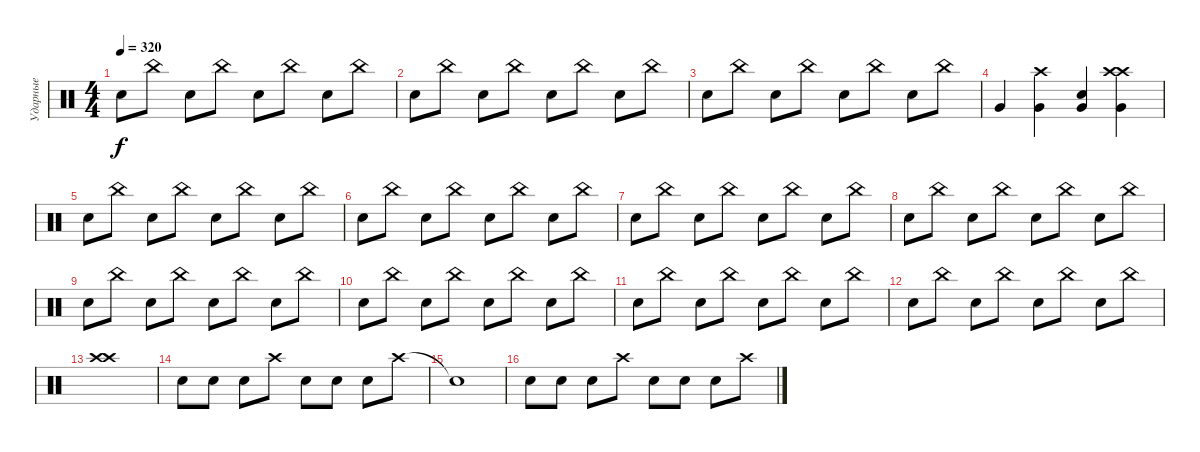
\track ("Ударные" "Ударные") {instrument percussion}
\staff {score}
\articulation defaults
\ts (4 4)
\tempo 320
\clef neutral
\ks c "Electric Snare (hit)".8{dy f} "China (hit)".8 "Electric Snare (hit)".8 "China (hit)".8 "Electric Snare (hit)".8 "China (hit)".8 "Electric Snare (hit)".8 "China (hit)".8
|
"Electric Snare (hit)".8 "China (hit)".8 "Electric Snare (hit)".8 "China (hit)".8 "Electric Snare (hit)".8 "China (hit)".8 "Electric Snare (hit)".8 "China (hit)".8 |
"Electric Snare (hit)".8 "China (hit)".8 "Electric Snare (hit)".8 "China (hit)".8 "Electric Snare (hit)".8 "China (hit)".8 "Electric Snare (hit)".8 "China (hit)".8 |
"Very Low Tom (hit)".4 ("Crash high (hit)" "Very Low Tom (hit)").4 ("Electric Snare (hit)" "Very Low Tom (hit)").4 ("Crash high (hit)" "Crash high (hit)" "Very Low Tom (hit)").4 |
"Electric Snare (hit)".8 "China (hit)".8 "Electric Snare (hit)".8 "China (hit)".8 "Electric Snare (hit)".8 "China (hit)".8 "Electric Snare (hit)".8 "China (hit)".8 |
"Electric Snare (hit)".8 "China (hit)".8 "Electric Snare (hit)".8 "China (hit)".8 "Electric Snare (hit)".8 "China (hit)".8 "Electric Snare (hit)".8 "China (hit)".8 |
"Electric Snare (hit)".8 "China (hit)".8 "Electric Snare (hit)".8 "China (hit)".8 "Electric Snare (hit)".8 "China (hit)".8 "Electric Snare (hit)".8 "China (hit)".8 |
"Electric Snare (hit)".8 "China (hit)".8 "Electric Snare (hit)".8 "China (hit)".8 "Electric Snare (hit)".8 "China (hit)".8 "Electric Snare (hit)".8 "China (hit)".8 |
"Electric Snare (hit)".8 "China (hit)".8 "Electric Snare (hit)".8 "China (hit)".8 "Electric Snare (hit)".8 "China (hit)".8 "Electric Snare (hit)".8 "China (hit)".8 |
"Electric Snare (hit)".8 "China (hit)".8 "Electric Snare (hit)".8 "China (hit)".8 "Electric Snare (hit)".8 "China (hit)".8 "Electric Snare (hit)".8 "China (hit)".8 |
"Electric Snare (hit)".8 "China (hit)".8 "Electric Snare (hit)".8 "China (hit)".8 "Electric Snare (hit)".8 "China (hit)".8 "Electric Snare (hit)".8 "China (hit)".8 |
"Electric Snare (hit)".8 "China (hit)".8 "Electric Snare (hit)".8 "China (hit)".8 "Electric Snare (hit)".8 "China (hit)".8 "Electric Snare (hit)".8 "China (hit)".8 |
("Crash high (hit)" "Crash high (hit)").1 |
"Electric Snare (hit)".8 "Electric Snare (hit)".8 "Electric Snare (hit)".8 "Crash high (hit)".8 "Electric Snare (hit)".8 "Electric Snare (hit)".8 "Electric Snare (hit)".8 "Crash high (hit)".8 |
"Snare (hit)"{t}.1 |
"Electric Snare (hit)".8 "Electric Snare (hit)".8 "Electric Snare (hit)".8 "Crash high (hit)".8 "Electric Snare (hit)".8 "Electric Snare (hit)".8 "Electric Snare (hit)".8 "Crash high (hit)".8
